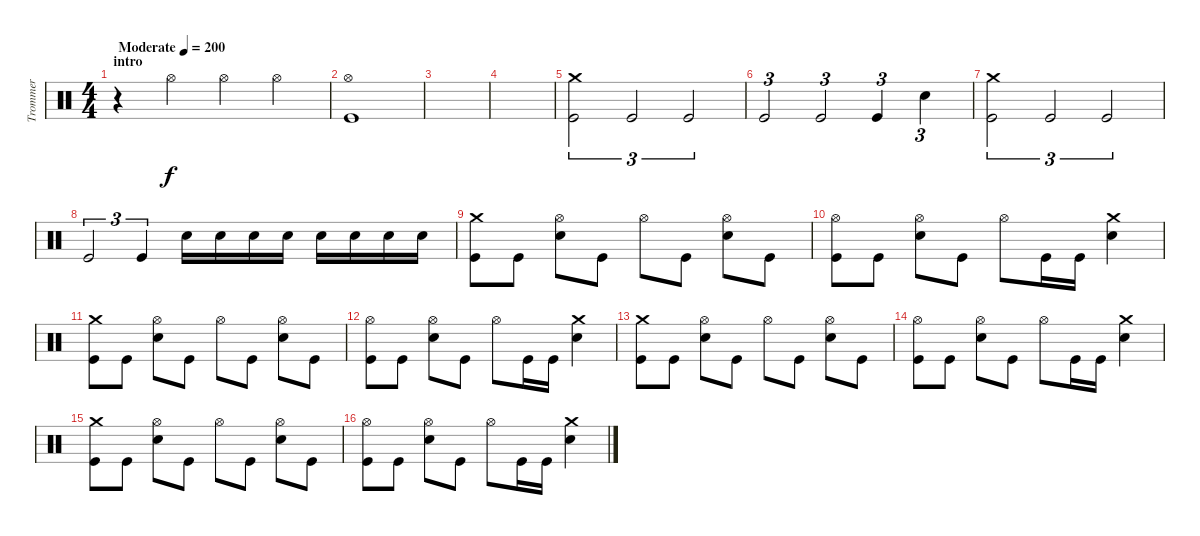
\track ("Trommer" "Trommer") {instrument percussion}
\staff {score}
\articulation defaults
\ts (4 4)
\section ("" "intro")
\tempo (200 "Moderate")
\clef neutral
\ks c
r.4{dy f} "Hi-Hat (open)".4 "Hi-Hat (open)".4 "Hi-Hat (open)".4 |
("Hi-Hat (open)" "Kick (hit)").1 |
|
|
("Crash medium (hit)" "Kick (hit)").2{tu (3 2)} "Kick (hit)".2{tu (3 2)} "Kick (hit)".2{tu (3 2)} |
"Kick (hit)".2{tu (3 2)} "Kick (hit)".2{tu (3 2)} "Kick (hit)".4{tu (3 2)} "Snare (hit) 2".4{tu (3 2)} |
("Crash medium (hit)" "Kick (hit)").2{tu (3 2)} "Kick (hit)".2{tu (3 2)} "Kick (hit)".2{tu (3 2)} |
"Kick (hit)".2{tu (3 2)} "Kick (hit)".4{tu (3 2)} "Snare (hit) 2".16 "Snare (hit) 2".16 "Snare (hit) 2".16 "Snare (hit) 2".16 "Snare (hit) 2".16 "Snare (hit) 2".16 "Snare (hit) 2".16 "Snare (hit) 2".16 |
("Crash medium (hit)" "Kick (hit)").8 "Kick (hit)".8 ("Hi-Hat (open)" "Snare (hit) 2").8 "Kick (hit)".8 "Hi-Hat (open)".8 "Kick (hit)".8 ("Hi-Hat (open)" "Snare (hit) 2").8 "Kick (hit)".8 |
("Hi-Hat (open)" "Kick (hit)").8 "Kick (hit)".8 ("Hi-Hat (open)" "Snare (hit) 2").8 "Kick (hit)".8 "Hi-Hat (open)".8 "Kick (hit)".16 "Kick (hit)".16 ("Crash medium (hit)" "Snare (hit) 2").4 |
("Crash medium (hit)" "Kick (hit)").8 "Kick (hit)".8 ("Hi-Hat (open)" "Snare (hit) 2").8 "Kick (hit)".8 "Hi-Hat (open)".8 "Kick (hit)".8 ("Hi-Hat (open)" "Snare (hit) 2").8 "Kick (hit)".8 |
("Hi-Hat (open)" "Kick (hit)").8 "Kick (hit)".8 ("Hi-Hat (open)" "Snare (hit) 2").8 "Kick (hit)".8 "Hi-Hat (open)".8 "Kick (hit)".16 "Kick (hit)".16 ("Crash medium (hit)" "Snare (hit) 2").4 |
("Crash medium (hit)" "Kick (hit)").8 "Kick (hit)".8 ("Hi-Hat (open)" "Snare (hit) 2").8 "Kick (hit)".8 "Hi-Hat (open)".8 "Kick (hit)".8 ("Hi-Hat (open)" "Snare (hit) 2").8 "Kick (hit)".8 |
("Hi-Hat (open)" "Kick (hit)").8 "Kick (hit)".8 ("Hi-Hat (open)" "Snare (hit) 2").8 "Kick (hit)".8 "Hi-Hat (open)".8 "Kick (hit)".16 "Kick (hit)".16 ("Crash medium (hit)" "Snare (hit) 2").4 |
("Crash medium (hit)" "Kick (hit)").8 "Kick (hit)".8 ("Hi-Hat (open)" "Snare (hit) 2").8 "Kick (hit)".8 "Hi-Hat (open)".8 "Kick (hit)".8 ("Hi-Hat (open)" "Snare (hit) 2").8 "Kick (hit)".8 |
("Hi-Hat (open)" "Kick (hit)").8 "Kick (hit)".8 ("Hi-Hat (open)" "Snare (hit) 2").8 "Kick (hit)".8 "Hi-Hat (open)".8 "Kick (hit)".16 "Kick (hit)".16 ("Crash medium (hit)" "Snare (hit) 2").4
